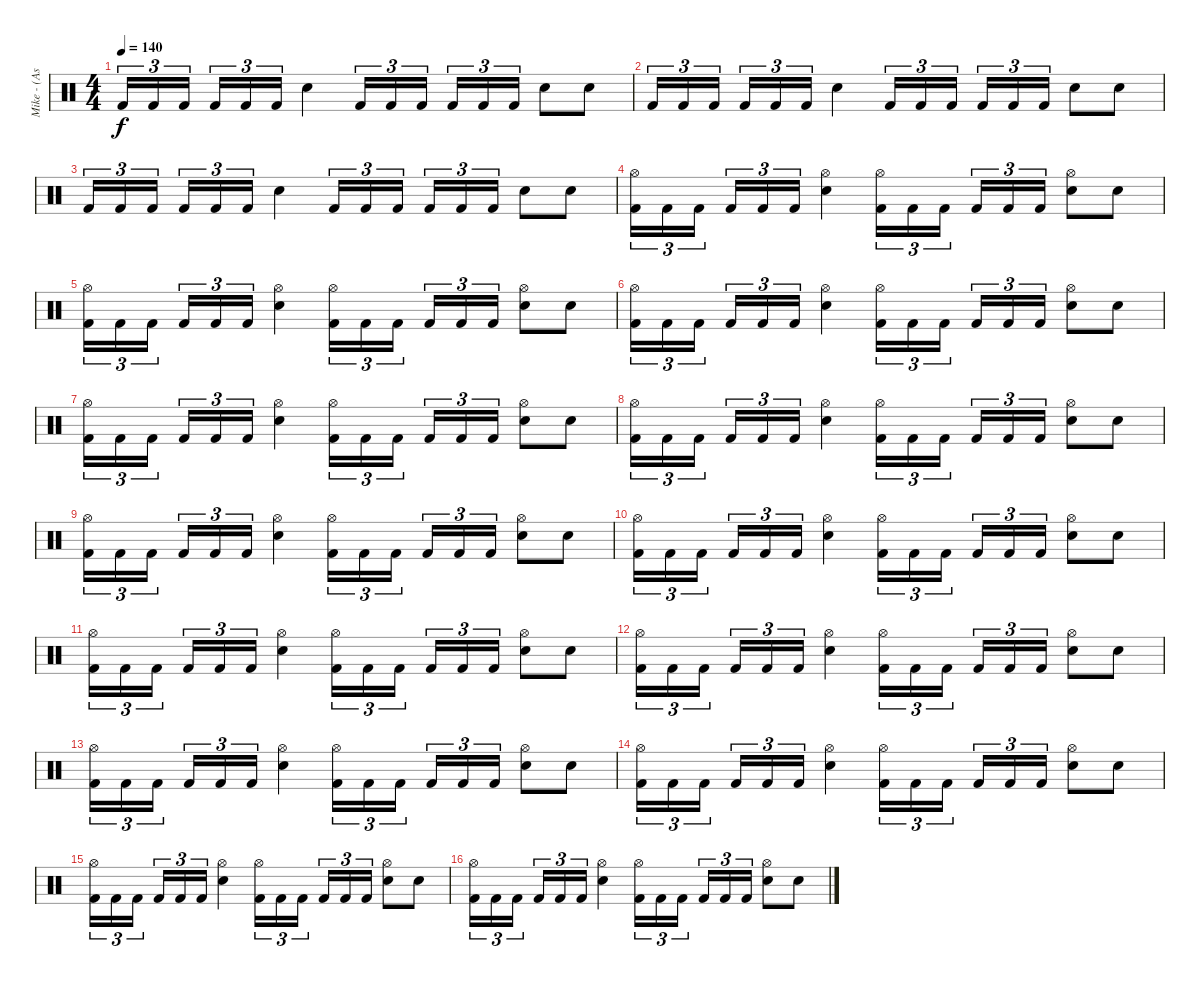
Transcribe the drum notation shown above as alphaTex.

\track ("Mike - (Assault and Battery)" "Mike - (As") {instrument percussion}
\staff {score}
\articulation defaults
\ts (4 4)
\tempo 140
\clef neutral
\ks c "Kick (hit) 2".16{tu (3 2) dy f} "Kick (hit) 2".16{tu (3 2)} "Kick (hit) 2".16{tu (3 2)} "Kick (hit) 2".16{tu (3 2)} "Kick (hit) 2".16{tu (3 2)} "Kick (hit) 2".16{tu (3 2)} "Snare (hit) 2".4 "Kick (hit) 2".16{tu (3 2)} "Kick (hit) 2".16{tu (3 2)} "Kick (hit) 2".16{tu (3 2)} "Kick (hit) 2".16{tu (3 2)} "Kick (hit) 2".16{tu (3 2)} "Kick (hit) 2".16{tu (3 2)} "Snare (hit) 2".8 "Snare (hit) 2".8
|
"Kick (hit) 2".16{tu (3 2)} "Kick (hit) 2".16{tu (3 2)} "Kick (hit) 2".16{tu (3 2)} "Kick (hit) 2".16{tu (3 2)} "Kick (hit) 2".16{tu (3 2)} "Kick (hit) 2".16{tu (3 2)} "Snare (hit) 2".4 "Kick (hit) 2".16{tu (3 2)} "Kick (hit) 2".16{tu (3 2)} "Kick (hit) 2".16{tu (3 2)} "Kick (hit) 2".16{tu (3 2)} "Kick (hit) 2".16{tu (3 2)} "Kick (hit) 2".16{tu (3 2)} "Snare (hit) 2".8 "Snare (hit) 2".8 |
"Kick (hit) 2".16{tu (3 2)} "Kick (hit) 2".16{tu (3 2)} "Kick (hit) 2".16{tu (3 2)} "Kick (hit) 2".16{tu (3 2)} "Kick (hit) 2".16{tu (3 2)} "Kick (hit) 2".16{tu (3 2)} "Snare (hit) 2".4 "Kick (hit) 2".16{tu (3 2)} "Kick (hit) 2".16{tu (3 2)} "Kick (hit) 2".16{tu (3 2)} "Kick (hit) 2".16{tu (3 2)} "Kick (hit) 2".16{tu (3 2)} "Kick (hit) 2".16{tu (3 2)} "Snare (hit) 2".8 "Snare (hit) 2".8 |
("Hi-Hat (open)" "Kick (hit) 2").16{tu (3 2)} "Kick (hit) 2".16{tu (3 2)} "Kick (hit) 2".16{tu (3 2)} "Kick (hit) 2".16{tu (3 2)} "Kick (hit) 2".16{tu (3 2)} "Kick (hit) 2".16{tu (3 2)} ("Snare (hit) 2" "Hi-Hat (open)").4 ("Hi-Hat (open)" "Kick (hit) 2").16{tu (3 2)} "Kick (hit) 2".16{tu (3 2)} "Kick (hit) 2".16{tu (3 2)} "Kick (hit) 2".16{tu (3 2)} "Kick (hit) 2".16{tu (3 2)} "Kick (hit) 2".16{tu (3 2)} ("Snare (hit) 2" "Hi-Hat (open)").8 "Snare (hit) 2".8 |
("Hi-Hat (open)" "Kick (hit) 2").16{tu (3 2)} "Kick (hit) 2".16{tu (3 2)} "Kick (hit) 2".16{tu (3 2)} "Kick (hit) 2".16{tu (3 2)} "Kick (hit) 2".16{tu (3 2)} "Kick (hit) 2".16{tu (3 2)} ("Snare (hit) 2" "Hi-Hat (open)").4 ("Hi-Hat (open)" "Kick (hit) 2").16{tu (3 2)} "Kick (hit) 2".16{tu (3 2)} "Kick (hit) 2".16{tu (3 2)} "Kick (hit) 2".16{tu (3 2)} "Kick (hit) 2".16{tu (3 2)} "Kick (hit) 2".16{tu (3 2)} ("Snare (hit) 2" "Hi-Hat (open)").8 "Snare (hit) 2".8 |
("Hi-Hat (open)" "Kick (hit) 2").16{tu (3 2)} "Kick (hit) 2".16{tu (3 2)} "Kick (hit) 2".16{tu (3 2)} "Kick (hit) 2".16{tu (3 2)} "Kick (hit) 2".16{tu (3 2)} "Kick (hit) 2".16{tu (3 2)} ("Snare (hit) 2" "Hi-Hat (open)").4 ("Hi-Hat (open)" "Kick (hit) 2").16{tu (3 2)} "Kick (hit) 2".16{tu (3 2)} "Kick (hit) 2".16{tu (3 2)} "Kick (hit) 2".16{tu (3 2)} "Kick (hit) 2".16{tu (3 2)} "Kick (hit) 2".16{tu (3 2)} ("Snare (hit) 2" "Hi-Hat (open)").8 "Snare (hit) 2".8 |
("Hi-Hat (open)" "Kick (hit) 2").16{tu (3 2)} "Kick (hit) 2".16{tu (3 2)} "Kick (hit) 2".16{tu (3 2)} "Kick (hit) 2".16{tu (3 2)} "Kick (hit) 2".16{tu (3 2)} "Kick (hit) 2".16{tu (3 2)} ("Snare (hit) 2" "Hi-Hat (open)").4 ("Hi-Hat (open)" "Kick (hit) 2").16{tu (3 2)} "Kick (hit) 2".16{tu (3 2)} "Kick (hit) 2".16{tu (3 2)} "Kick (hit) 2".16{tu (3 2)} "Kick (hit) 2".16{tu (3 2)} "Kick (hit) 2".16{tu (3 2)} ("Snare (hit) 2" "Hi-Hat (open)").8 "Snare (hit) 2".8 |
("Hi-Hat (open)" "Kick (hit) 2").16{tu (3 2)} "Kick (hit) 2".16{tu (3 2)} "Kick (hit) 2".16{tu (3 2)} "Kick (hit) 2".16{tu (3 2)} "Kick (hit) 2".16{tu (3 2)} "Kick (hit) 2".16{tu (3 2)} ("Snare (hit) 2" "Hi-Hat (open)").4 ("Hi-Hat (open)" "Kick (hit) 2").16{tu (3 2)} "Kick (hit) 2".16{tu (3 2)} "Kick (hit) 2".16{tu (3 2)} "Kick (hit) 2".16{tu (3 2)} "Kick (hit) 2".16{tu (3 2)} "Kick (hit) 2".16{tu (3 2)} ("Snare (hit) 2" "Hi-Hat (open)").8 "Snare (hit) 2".8 |
("Hi-Hat (open)" "Kick (hit) 2").16{tu (3 2)} "Kick (hit) 2".16{tu (3 2)} "Kick (hit) 2".16{tu (3 2)} "Kick (hit) 2".16{tu (3 2)} "Kick (hit) 2".16{tu (3 2)} "Kick (hit) 2".16{tu (3 2)} ("Snare (hit) 2" "Hi-Hat (open)").4 ("Hi-Hat (open)" "Kick (hit) 2").16{tu (3 2)} "Kick (hit) 2".16{tu (3 2)} "Kick (hit) 2".16{tu (3 2)} "Kick (hit) 2".16{tu (3 2)} "Kick (hit) 2".16{tu (3 2)} "Kick (hit) 2".16{tu (3 2)} ("Snare (hit) 2" "Hi-Hat (open)").8 "Snare (hit) 2".8 |
("Hi-Hat (open)" "Kick (hit) 2").16{tu (3 2)} "Kick (hit) 2".16{tu (3 2)} "Kick (hit) 2".16{tu (3 2)} "Kick (hit) 2".16{tu (3 2)} "Kick (hit) 2".16{tu (3 2)} "Kick (hit) 2".16{tu (3 2)} ("Snare (hit) 2" "Hi-Hat (open)").4 ("Hi-Hat (open)" "Kick (hit) 2").16{tu (3 2)} "Kick (hit) 2".16{tu (3 2)} "Kick (hit) 2".16{tu (3 2)} "Kick (hit) 2".16{tu (3 2)} "Kick (hit) 2".16{tu (3 2)} "Kick (hit) 2".16{tu (3 2)} ("Snare (hit) 2" "Hi-Hat (open)").8 "Snare (hit) 2".8 |
("Hi-Hat (open)" "Kick (hit) 2").16{tu (3 2)} "Kick (hit) 2".16{tu (3 2)} "Kick (hit) 2".16{tu (3 2)} "Kick (hit) 2".16{tu (3 2)} "Kick (hit) 2".16{tu (3 2)} "Kick (hit) 2".16{tu (3 2)} ("Snare (hit) 2" "Hi-Hat (open)").4 ("Hi-Hat (open)" "Kick (hit) 2").16{tu (3 2)} "Kick (hit) 2".16{tu (3 2)} "Kick (hit) 2".16{tu (3 2)} "Kick (hit) 2".16{tu (3 2)} "Kick (hit) 2".16{tu (3 2)} "Kick (hit) 2".16{tu (3 2)} ("Snare (hit) 2" "Hi-Hat (open)").8 "Snare (hit) 2".8 |
("Hi-Hat (open)" "Kick (hit) 2").16{tu (3 2)} "Kick (hit) 2".16{tu (3 2)} "Kick (hit) 2".16{tu (3 2)} "Kick (hit) 2".16{tu (3 2)} "Kick (hit) 2".16{tu (3 2)} "Kick (hit) 2".16{tu (3 2)} ("Snare (hit) 2" "Hi-Hat (open)").4 ("Hi-Hat (open)" "Kick (hit) 2").16{tu (3 2)} "Kick (hit) 2".16{tu (3 2)} "Kick (hit) 2".16{tu (3 2)} "Kick (hit) 2".16{tu (3 2)} "Kick (hit) 2".16{tu (3 2)} "Kick (hit) 2".16{tu (3 2)} ("Snare (hit) 2" "Hi-Hat (open)").8 "Snare (hit) 2".8 |
("Hi-Hat (open)" "Kick (hit) 2").16{tu (3 2)} "Kick (hit) 2".16{tu (3 2)} "Kick (hit) 2".16{tu (3 2)} "Kick (hit) 2".16{tu (3 2)} "Kick (hit) 2".16{tu (3 2)} "Kick (hit) 2".16{tu (3 2)} ("Snare (hit) 2" "Hi-Hat (open)").4 ("Hi-Hat (open)" "Kick (hit) 2").16{tu (3 2)} "Kick (hit) 2".16{tu (3 2)} "Kick (hit) 2".16{tu (3 2)} "Kick (hit) 2".16{tu (3 2)} "Kick (hit) 2".16{tu (3 2)} "Kick (hit) 2".16{tu (3 2)} ("Snare (hit) 2" "Hi-Hat (open)").8 "Snare (hit) 2".8 |
("Hi-Hat (open)" "Kick (hit) 2").16{tu (3 2)} "Kick (hit) 2".16{tu (3 2)} "Kick (hit) 2".16{tu (3 2)} "Kick (hit) 2".16{tu (3 2)} "Kick (hit) 2".16{tu (3 2)} "Kick (hit) 2".16{tu (3 2)} ("Snare (hit) 2" "Hi-Hat (open)").4 ("Hi-Hat (open)" "Kick (hit) 2").16{tu (3 2)} "Kick (hit) 2".16{tu (3 2)} "Kick (hit) 2".16{tu (3 2)} "Kick (hit) 2".16{tu (3 2)} "Kick (hit) 2".16{tu (3 2)} "Kick (hit) 2".16{tu (3 2)} ("Snare (hit) 2" "Hi-Hat (open)").8 "Snare (hit) 2".8 |
("Hi-Hat (open)" "Kick (hit) 2").16{tu (3 2)} "Kick (hit) 2".16{tu (3 2)} "Kick (hit) 2".16{tu (3 2)} "Kick (hit) 2".16{tu (3 2)} "Kick (hit) 2".16{tu (3 2)} "Kick (hit) 2".16{tu (3 2)} ("Snare (hit) 2" "Hi-Hat (open)").4 ("Hi-Hat (open)" "Kick (hit) 2").16{tu (3 2)} "Kick (hit) 2".16{tu (3 2)} "Kick (hit) 2".16{tu (3 2)} "Kick (hit) 2".16{tu (3 2)} "Kick (hit) 2".16{tu (3 2)} "Kick (hit) 2".16{tu (3 2)} ("Snare (hit) 2" "Hi-Hat (open)").8 "Snare (hit) 2".8 |
("Hi-Hat (open)" "Kick (hit) 2").16{tu (3 2)} "Kick (hit) 2".16{tu (3 2)} "Kick (hit) 2".16{tu (3 2)} "Kick (hit) 2".16{tu (3 2)} "Kick (hit) 2".16{tu (3 2)} "Kick (hit) 2".16{tu (3 2)} ("Snare (hit) 2" "Hi-Hat (open)").4 ("Hi-Hat (open)" "Kick (hit) 2").16{tu (3 2)} "Kick (hit) 2".16{tu (3 2)} "Kick (hit) 2".16{tu (3 2)} "Kick (hit) 2".16{tu (3 2)} "Kick (hit) 2".16{tu (3 2)} "Kick (hit) 2".16{tu (3 2)} ("Snare (hit) 2" "Hi-Hat (open)").8 "Snare (hit) 2".8
